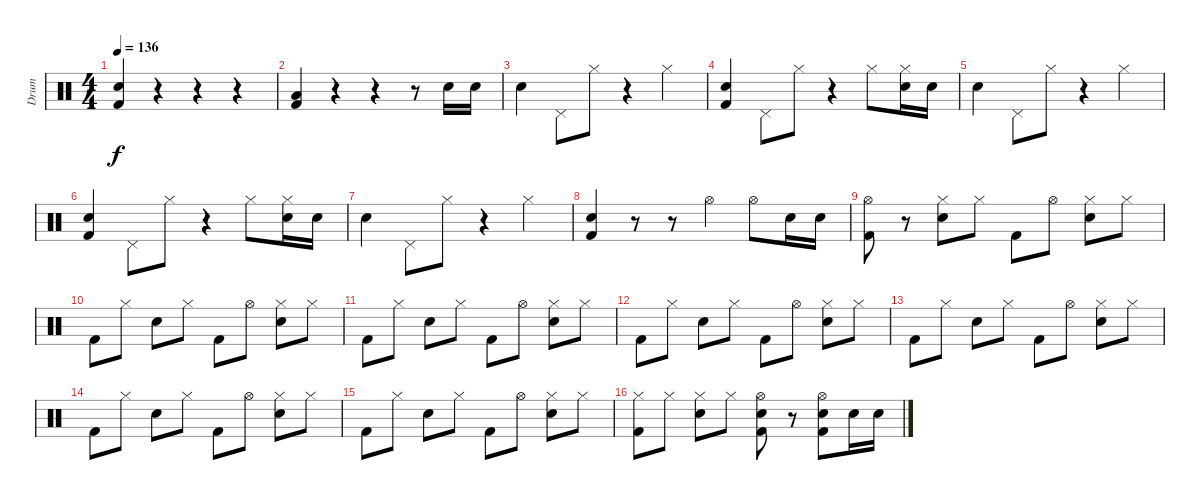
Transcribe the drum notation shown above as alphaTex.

\track ("Drum" "Drum") {instrument percussion}
\staff {score}
\articulation defaults
\ts (4 4)
\tempo 136
\clef neutral
\ks c
("Electric Snare (hit)" "Kick (hit) 2").4{dy f} r.4 r.4 r.4 |
("Low Tom (hit)" "Kick (hit) 2").4 r.4 r.4 r.8 "Electric Snare (hit)".16 "Electric Snare (hit)".16 |
"Electric Snare (hit)".4 "Pedal Hi-Hat (hit)".8 "Hi-Hat (closed)".8 r.4 "Hi-Hat (closed)".4 |
("Electric Snare (hit)" "Kick (hit) 2").4 "Pedal Hi-Hat (hit)".8 "Hi-Hat (closed)".8 r.4 "Hi-Hat (closed)".8 ("Hi-Hat (closed)" "Electric Snare (hit)").16 "Electric Snare (hit)".16 |
"Electric Snare (hit)".4 "Pedal Hi-Hat (hit)".8 "Hi-Hat (closed)".8 r.4 "Hi-Hat (closed)".4 |
("Electric Snare (hit)" "Kick (hit) 2").4 "Pedal Hi-Hat (hit)".8 "Hi-Hat (closed)".8 r.4 "Hi-Hat (closed)".8 ("Hi-Hat (closed)" "Electric Snare (hit)").16 "Electric Snare (hit)".16 |
"Electric Snare (hit)".4 "Pedal Hi-Hat (hit)".8 "Hi-Hat (closed)".8 r.4 "Hi-Hat (closed)".4 |
("Electric Snare (hit)" "Kick (hit) 2").4 r.8 r.8 "Hi-Hat (open)".4 "Hi-Hat (open)".8 "Electric Snare (hit)".16 "Electric Snare (hit)".16 |
("Hi-Hat (open)" "Kick (hit) 2").8 r.8 ("Hi-Hat (closed)" "Electric Snare (hit)").8 "Hi-Hat (closed)".8 "Kick (hit) 2".8 "Hi-Hat (open)".8 ("Hi-Hat (closed)" "Electric Snare (hit)").8 "Hi-Hat (closed)".8 |
"Kick (hit) 2".8 "Hi-Hat (closed)".8 "Electric Snare (hit)".8 "Hi-Hat (closed)".8 "Kick (hit) 2".8 "Hi-Hat (open)".8 ("Hi-Hat (closed)" "Electric Snare (hit)").8 "Hi-Hat (closed)".8 |
"Kick (hit) 2".8 "Hi-Hat (closed)".8 "Electric Snare (hit)".8 "Hi-Hat (closed)".8 "Kick (hit) 2".8 "Hi-Hat (open)".8 ("Hi-Hat (closed)" "Electric Snare (hit)").8 "Hi-Hat (closed)".8 |
"Kick (hit) 2".8 "Hi-Hat (closed)".8 "Electric Snare (hit)".8 "Hi-Hat (closed)".8 "Kick (hit) 2".8 "Hi-Hat (open)".8 ("Hi-Hat (closed)" "Electric Snare (hit)").8 "Hi-Hat (closed)".8 |
"Kick (hit) 2".8 "Hi-Hat (closed)".8 "Electric Snare (hit)".8 "Hi-Hat (closed)".8 "Kick (hit) 2".8 "Hi-Hat (open)".8 ("Hi-Hat (closed)" "Electric Snare (hit)").8 "Hi-Hat (closed)".8 |
"Kick (hit) 2".8 "Hi-Hat (closed)".8 "Electric Snare (hit)".8 "Hi-Hat (closed)".8 "Kick (hit) 2".8 "Hi-Hat (open)".8 ("Hi-Hat (closed)" "Electric Snare (hit)").8 "Hi-Hat (closed)".8 |
"Kick (hit) 2".8 "Hi-Hat (closed)".8 "Electric Snare (hit)".8 "Hi-Hat (closed)".8 "Kick (hit) 2".8 "Hi-Hat (open)".8 ("Hi-Hat (closed)" "Electric Snare (hit)").8 "Hi-Hat (closed)".8 |
("Hi-Hat (closed)" "Kick (hit) 2").8 "Hi-Hat (closed)".8 ("Hi-Hat (closed)" "Electric Snare (hit)").8 "Hi-Hat (closed)".8 ("Hi-Hat (open)" "Electric Snare (hit)" "Kick (hit) 2").8 r.8 ("Hi-Hat (open)" "Electric Snare (hit)" "Kick (hit) 2").8 "Electric Snare (hit)".16 "Electric Snare (hit)".16
